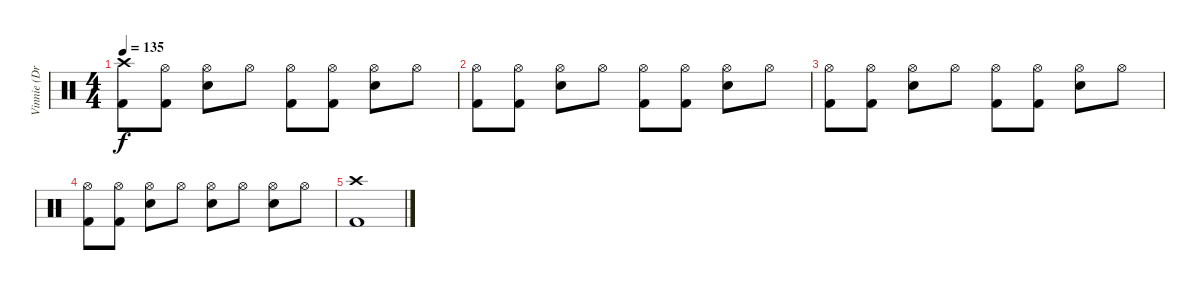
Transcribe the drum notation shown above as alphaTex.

\track ("Vinnie (Drums)" "Vinnie (Dr") {instrument percussion}
\staff {score}
\articulation defaults
\ts (4 4)
\tempo 135
\clef neutral
\ks c
("Crash high (hit)" "Kick (hit) 2").8{dy f} ("Hi-Hat (open)" "Kick (hit) 2").8 ("Hi-Hat (open)" "Snare (hit) 2").8 "Hi-Hat (open)".8 ("Hi-Hat (open)" "Kick (hit) 2").8 ("Hi-Hat (open)" "Kick (hit) 2").8 ("Hi-Hat (open)" "Snare (hit) 2").8 "Hi-Hat (open)".8 |
("Hi-Hat (open)" "Kick (hit) 2").8 ("Hi-Hat (open)" "Kick (hit) 2").8 ("Hi-Hat (open)" "Snare (hit) 2").8 "Hi-Hat (open)".8 ("Hi-Hat (open)" "Kick (hit) 2").8 ("Hi-Hat (open)" "Kick (hit) 2").8 ("Hi-Hat (open)" "Snare (hit) 2").8 "Hi-Hat (open)".8 |
("Hi-Hat (open)" "Kick (hit) 2").8 ("Hi-Hat (open)" "Kick (hit) 2").8 ("Hi-Hat (open)" "Snare (hit) 2").8 "Hi-Hat (open)".8 ("Hi-Hat (open)" "Kick (hit) 2").8 ("Hi-Hat (open)" "Kick (hit) 2").8 ("Hi-Hat (open)" "Snare (hit) 2").8 "Hi-Hat (open)".8 |
("Hi-Hat (open)" "Kick (hit) 2").8 ("Hi-Hat (open)" "Kick (hit) 2").8 ("Hi-Hat (open)" "Snare (hit) 2").8 "Hi-Hat (open)".8 ("Hi-Hat (open)" "Snare (hit) 2").8 "Hi-Hat (open)".8 ("Hi-Hat (open)" "Snare (hit) 2").8 "Hi-Hat (open)".8 |
("Crash high (hit)" "Kick (hit) 2").1
